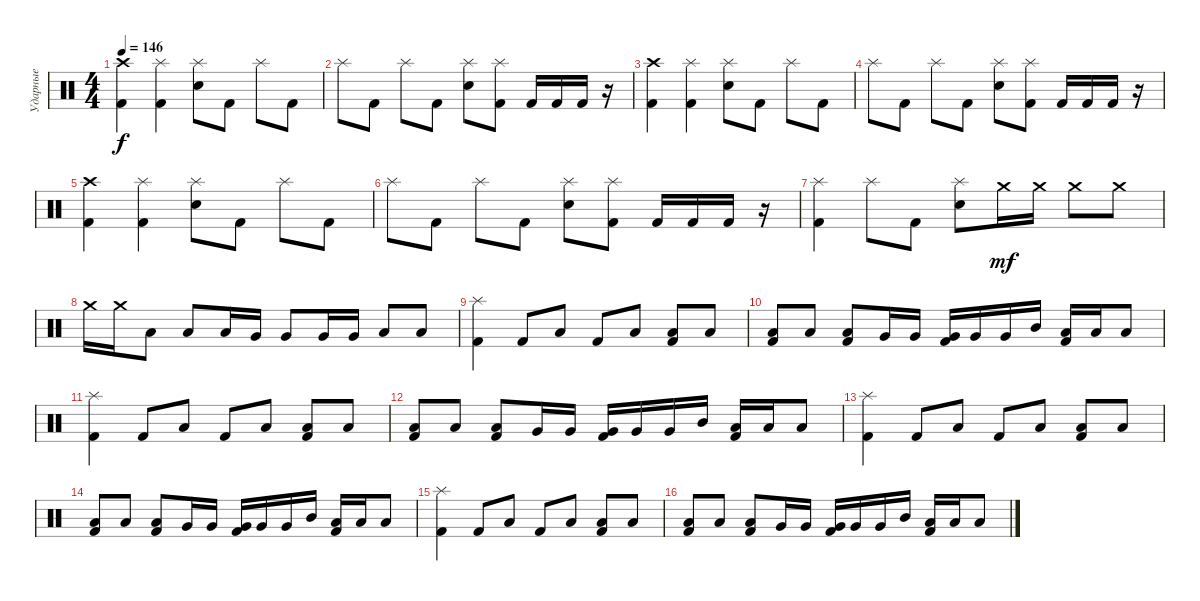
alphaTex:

\track ("Ударные" "Ударные") {instrument percussion}
\staff {score}
\articulation defaults
\ts (4 4)
\tempo 146
\clef neutral
\ks c
("Crash high (hit)" "Kick (hit) 2").4{dy f} ("Splash (hit)" "Kick (hit) 2").4 ("Splash (hit)" "Snare (hit) 2").8 "Kick (hit) 2".8 "Splash (hit)".8 "Kick (hit) 2".8 |
"Splash (hit)".8 "Kick (hit) 2".8 "Splash (hit)".8 "Kick (hit) 2".8 ("Splash (hit)" "Snare (hit) 2").8 ("Splash (hit)" "Kick (hit) 2").8 "Kick (hit) 2".16 "Kick (hit) 2".16 "Kick (hit) 2".16 r.16 |
("Crash high (hit)" "Kick (hit) 2").4 ("Splash (hit)" "Kick (hit) 2").4 ("Splash (hit)" "Snare (hit) 2").8 "Kick (hit) 2".8 "Splash (hit)".8 "Kick (hit) 2".8 |
"Splash (hit)".8 "Kick (hit) 2".8 "Splash (hit)".8 "Kick (hit) 2".8 ("Splash (hit)" "Snare (hit) 2").8 ("Splash (hit)" "Kick (hit) 2").8 "Kick (hit) 2".16 "Kick (hit) 2".16 "Kick (hit) 2".16 r.16 |
("Crash high (hit)" "Kick (hit) 2").4 ("Splash (hit)" "Kick (hit) 2").4 ("Splash (hit)" "Snare (hit) 2").8 "Kick (hit) 2".8 "Splash (hit)".8 "Kick (hit) 2".8 |
"Splash (hit)".8 "Kick (hit) 2".8 "Splash (hit)".8 "Kick (hit) 2".8 ("Splash (hit)" "Snare (hit) 2").8 ("Splash (hit)" "Kick (hit) 2").8 "Kick (hit) 2".16 "Kick (hit) 2".16 "Kick (hit) 2".16 r.16 |
("Splash (hit)" "Kick (hit) 2").4 "Splash (hit)".8 "Kick (hit) 2".8 ("Splash (hit)" "Snare (hit) 2").8 "Crash medium (hit)".16{dy mf} "Crash medium (hit)".16 "Crash medium (hit)".8 "Crash medium (hit)".8 |
"Crash medium (hit)".16 "Crash medium (hit)".16 "Low Tom (hit)".8 "Low Tom (hit)".8 "Low Tom (hit)".16 "Very Low Tom (hit)".16 "Very Low Tom (hit)".8 "Very Low Tom (hit)".16 "Very Low Tom (hit)".16 "Low Floor Tom (hit)".8 "Low Floor Tom (hit)".8 |
("Splash (hit)" "Kick (hit) 2").4 "Kick (hit) 2".8 "Low Tom (hit)".8 "Kick (hit) 2".8 "Low Tom (hit)".8 ("Low Tom (hit)" "Kick (hit) 2").8 "Low Tom (hit)".8 |
("Low Tom (hit)" "Kick (hit) 2").8 "Low Tom (hit)".8 ("Low Tom (hit)" "Kick (hit) 2").8 "Very Low Tom (hit)".16 "Very Low Tom (hit)".16 ("Very Low Tom (hit)" "Kick (hit) 2").16 "Very Low Tom (hit)".16 "Very Low Tom (hit)".16 "Mid Tom (hit)".16 ("Low Tom (hit)" "Kick (hit) 2").16 "Low Tom (hit)".16 "Low Tom (hit)".8 |
("Splash (hit)" "Kick (hit) 2").4 "Kick (hit) 2".8 "Low Tom (hit)".8 "Kick (hit) 2".8 "Low Tom (hit)".8 ("Low Tom (hit)" "Kick (hit) 2").8 "Low Tom (hit)".8 |
("Low Tom (hit)" "Kick (hit) 2").8 "Low Tom (hit)".8 ("Low Tom (hit)" "Kick (hit) 2").8 "Very Low Tom (hit)".16 "Very Low Tom (hit)".16 ("Very Low Tom (hit)" "Kick (hit) 2").16 "Very Low Tom (hit)".16 "Very Low Tom (hit)".16 "Mid Tom (hit)".16 ("Low Tom (hit)" "Kick (hit) 2").16 "Low Tom (hit)".16 "Low Tom (hit)".8 |
("Splash (hit)" "Kick (hit) 2").4 "Kick (hit) 2".8 "Low Tom (hit)".8 "Kick (hit) 2".8 "Low Tom (hit)".8 ("Low Tom (hit)" "Kick (hit) 2").8 "Low Tom (hit)".8 |
("Low Tom (hit)" "Kick (hit) 2").8 "Low Tom (hit)".8 ("Low Tom (hit)" "Kick (hit) 2").8 "Very Low Tom (hit)".16 "Very Low Tom (hit)".16 ("Very Low Tom (hit)" "Kick (hit) 2").16 "Very Low Tom (hit)".16 "Very Low Tom (hit)".16 "Mid Tom (hit)".16 ("Low Tom (hit)" "Kick (hit) 2").16 "Low Tom (hit)".16 "Low Tom (hit)".8 |
("Splash (hit)" "Kick (hit) 2").4 "Kick (hit) 2".8 "Low Tom (hit)".8 "Kick (hit) 2".8 "Low Tom (hit)".8 ("Low Tom (hit)" "Kick (hit) 2").8 "Low Tom (hit)".8 |
("Low Tom (hit)" "Kick (hit) 2").8 "Low Tom (hit)".8 ("Low Tom (hit)" "Kick (hit) 2").8 "Very Low Tom (hit)".16 "Very Low Tom (hit)".16 ("Very Low Tom (hit)" "Kick (hit) 2").16 "Very Low Tom (hit)".16 "Very Low Tom (hit)".16 "Mid Tom (hit)".16 ("Low Tom (hit)" "Kick (hit) 2").16 "Low Tom (hit)".16 "Low Tom (hit)".8
